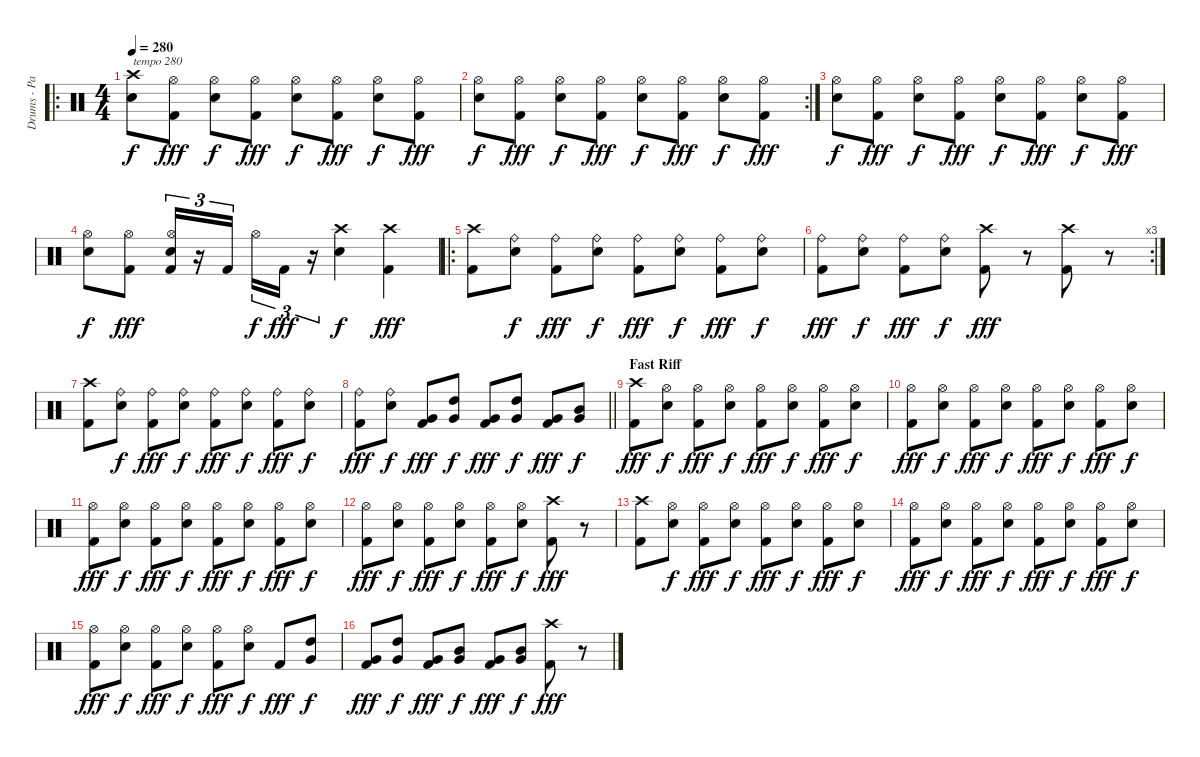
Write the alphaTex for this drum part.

\track ("Drums - Paul Mazurkiewicz" "Drums - Pa") {instrument percussion}
\staff {score}
\articulation defaults
\ro
\ts (4 4)
\tempo 280
\clef neutral
\ks c
("Crash high (hit)" "Snare (hit) 2").8{txt "tempo 280" dy f} ("Hi-Hat (open)" "Kick (hit) 2").8{dy fff} ("Hi-Hat (open)" "Snare (hit) 2").8{dy f} ("Hi-Hat (open)" "Kick (hit) 2").8{dy fff} ("Hi-Hat (open)" "Snare (hit) 2").8{dy f} ("Hi-Hat (open)" "Kick (hit) 2").8{dy fff} ("Hi-Hat (open)" "Snare (hit) 2").8{dy f} ("Hi-Hat (open)" "Kick (hit) 2").8{dy fff} |
\rc 2
("Hi-Hat (open)" "Snare (hit) 2").8{dy f} ("Hi-Hat (open)" "Kick (hit) 2").8{dy fff} ("Hi-Hat (open)" "Snare (hit) 2").8{dy f} ("Hi-Hat (open)" "Kick (hit) 2").8{dy fff} ("Hi-Hat (open)" "Snare (hit) 2").8{dy f} ("Hi-Hat (open)" "Kick (hit) 2").8{dy fff} ("Hi-Hat (open)" "Snare (hit) 2").8{dy f} ("Hi-Hat (open)" "Kick (hit) 2").8{dy fff} |
("Hi-Hat (open)" "Snare (hit) 2").8{dy f} ("Hi-Hat (open)" "Kick (hit) 2").8{dy fff} ("Hi-Hat (open)" "Snare (hit) 2").8{dy f} ("Hi-Hat (open)" "Kick (hit) 2").8{dy fff} ("Hi-Hat (open)" "Snare (hit) 2").8{dy f} ("Hi-Hat (open)" "Kick (hit) 2").8{dy fff} ("Hi-Hat (open)" "Snare (hit) 2").8{dy f} ("Hi-Hat (open)" "Kick (hit) 2").8{dy fff} |
("Hi-Hat (open)" "Snare (hit) 2").8{dy f} ("Hi-Hat (open)" "Kick (hit) 2").8{dy fff} ("Hi-Hat (open)" "Snare (hit) 2" "Kick (hit) 2").16{tu (3 2)} r.16{tu (3 2)} "Kick (hit) 2".16{tu (3 2) beam splitsecondary} "Hi-Hat (open)".16{tu (3 2) dy f} "Kick (hit) 2".16{tu (3 2) dy fff} r.16{tu (3 2)} ("Crash high (hit)" "Snare (hit) 2").4{dy f} ("Crash high (hit)" "Kick (hit) 2").4{dy fff} |
\ro
("Crash high (hit)" "Kick (hit) 2").8 ("Ride (bell)" "Snare (hit) 2").8{dy f} ("Ride (bell)" "Kick (hit) 2").8{dy fff} ("Ride (bell)" "Snare (hit) 2").8{dy f} ("Ride (bell)" "Kick (hit) 2").8{dy fff} ("Ride (bell)" "Snare (hit) 2").8{dy f} ("Ride (bell)" "Kick (hit) 2").8{dy fff} ("Ride (bell)" "Snare (hit) 2").8{dy f} |
\rc 3
("Ride (bell)" "Kick (hit) 2").8{dy fff} ("Ride (bell)" "Snare (hit) 2").8{dy f} ("Ride (bell)" "Kick (hit) 2").8{dy fff} ("Ride (bell)" "Snare (hit) 2").8{dy f} ("Crash high (hit)" "Kick (hit) 2").8{dy fff} r.8 ("Crash high (hit)" "Kick (hit) 2").8 r.8 |
("Crash high (hit)" "Kick (hit) 2").8 ("Ride (bell)" "Snare (hit) 2").8{dy f} ("Ride (bell)" "Kick (hit) 2").8{dy fff} ("Ride (bell)" "Snare (hit) 2").8{dy f} ("Ride (bell)" "Kick (hit) 2").8{dy fff} ("Ride (bell)" "Snare (hit) 2").8{dy f} ("Ride (bell)" "Kick (hit) 2").8{dy fff} ("Ride (bell)" "Snare (hit) 2").8{dy f} |
\barLineRight lightlight
("Ride (bell)" "Kick (hit) 2").8{dy fff} ("Ride (bell)" "Snare (hit) 2").8{dy f} ("Very Low Tom (hit)" "Kick (hit) 2").8{dy fff} ("High Tom (hit)" "Very Low Tom (hit)").8{dy f} ("Very Low Tom (hit)" "Kick (hit) 2").8{dy fff} ("High Tom (hit)" "Very Low Tom (hit)").8{dy f} ("Very Low Tom (hit)" "Kick (hit) 2").8{dy fff} ("Mid Tom (hit)" "Very Low Tom (hit)").8{dy f} |
\section ("" "Fast Riff")
("Crash high (hit)" "Kick (hit) 2").8{dy fff} ("Hi-Hat (open)" "Snare (hit) 2").8{dy f} ("Hi-Hat (open)" "Kick (hit) 2").8{dy fff} ("Hi-Hat (open)" "Snare (hit) 2").8{dy f} ("Hi-Hat (open)" "Kick (hit) 2").8{dy fff} ("Hi-Hat (open)" "Snare (hit) 2").8{dy f} ("Hi-Hat (open)" "Kick (hit) 2").8{dy fff} ("Hi-Hat (open)" "Snare (hit) 2").8{dy f} |
("Hi-Hat (open)" "Kick (hit) 2").8{dy fff} ("Hi-Hat (open)" "Snare (hit) 2").8{dy f} ("Hi-Hat (open)" "Kick (hit) 2").8{dy fff} ("Hi-Hat (open)" "Snare (hit) 2").8{dy f} ("Hi-Hat (open)" "Kick (hit) 2").8{dy fff} ("Hi-Hat (open)" "Snare (hit) 2").8{dy f} ("Hi-Hat (open)" "Kick (hit) 2").8{dy fff} ("Hi-Hat (open)" "Snare (hit) 2").8{dy f} |
("Hi-Hat (open)" "Kick (hit) 2").8{dy fff} ("Hi-Hat (open)" "Snare (hit) 2").8{dy f} ("Hi-Hat (open)" "Kick (hit) 2").8{dy fff} ("Hi-Hat (open)" "Snare (hit) 2").8{dy f} ("Hi-Hat (open)" "Kick (hit) 2").8{dy fff} ("Hi-Hat (open)" "Snare (hit) 2").8{dy f} ("Hi-Hat (open)" "Kick (hit) 2").8{dy fff} ("Hi-Hat (open)" "Snare (hit) 2").8{dy f} |
("Hi-Hat (open)" "Kick (hit) 2").8{dy fff} ("Hi-Hat (open)" "Snare (hit) 2").8{dy f} ("Hi-Hat (open)" "Kick (hit) 2").8{dy fff} ("Hi-Hat (open)" "Snare (hit) 2").8{dy f} ("Hi-Hat (open)" "Kick (hit) 2").8{dy fff} ("Hi-Hat (open)" "Snare (hit) 2").8{dy f} ("Crash high (hit)" "Kick (hit) 2").8{dy fff} r.8 |
("Crash high (hit)" "Kick (hit) 2").8 ("Hi-Hat (open)" "Snare (hit) 2").8{dy f} ("Hi-Hat (open)" "Kick (hit) 2").8{dy fff} ("Hi-Hat (open)" "Snare (hit) 2").8{dy f} ("Hi-Hat (open)" "Kick (hit) 2").8{dy fff} ("Hi-Hat (open)" "Snare (hit) 2").8{dy f} ("Hi-Hat (open)" "Kick (hit) 2").8{dy fff} ("Hi-Hat (open)" "Snare (hit) 2").8{dy f} |
("Hi-Hat (open)" "Kick (hit) 2").8{dy fff} ("Hi-Hat (open)" "Snare (hit) 2").8{dy f} ("Hi-Hat (open)" "Kick (hit) 2").8{dy fff} ("Hi-Hat (open)" "Snare (hit) 2").8{dy f} ("Hi-Hat (open)" "Kick (hit) 2").8{dy fff} ("Hi-Hat (open)" "Snare (hit) 2").8{dy f} ("Hi-Hat (open)" "Kick (hit) 2").8{dy fff} ("Hi-Hat (open)" "Snare (hit) 2").8{dy f} |
("Hi-Hat (open)" "Kick (hit) 2").8{dy fff} ("Hi-Hat (open)" "Snare (hit) 2").8{dy f} ("Hi-Hat (open)" "Kick (hit) 2").8{dy fff} ("Hi-Hat (open)" "Snare (hit) 2").8{dy f} ("Hi-Hat (open)" "Kick (hit) 2").8{dy fff} ("Hi-Hat (open)" "Snare (hit) 2").8{dy f} "Kick (hit) 2".8{dy fff} ("High Tom (hit)" "Very Low Tom (hit)").8{dy f} |
("Very Low Tom (hit)" "Kick (hit) 2").8{dy fff} ("High Tom (hit)" "Very Low Tom (hit)").8{dy f} ("Very Low Tom (hit)" "Kick (hit) 2").8{dy fff} ("Mid Tom (hit)" "Very Low Tom (hit)").8{dy f} ("Very Low Tom (hit)" "Kick (hit) 2").8{dy fff} ("Mid Tom (hit)" "Very Low Tom (hit)").8{dy f} ("Crash high (hit)" "Kick (hit) 2").8{dy fff} r.8
